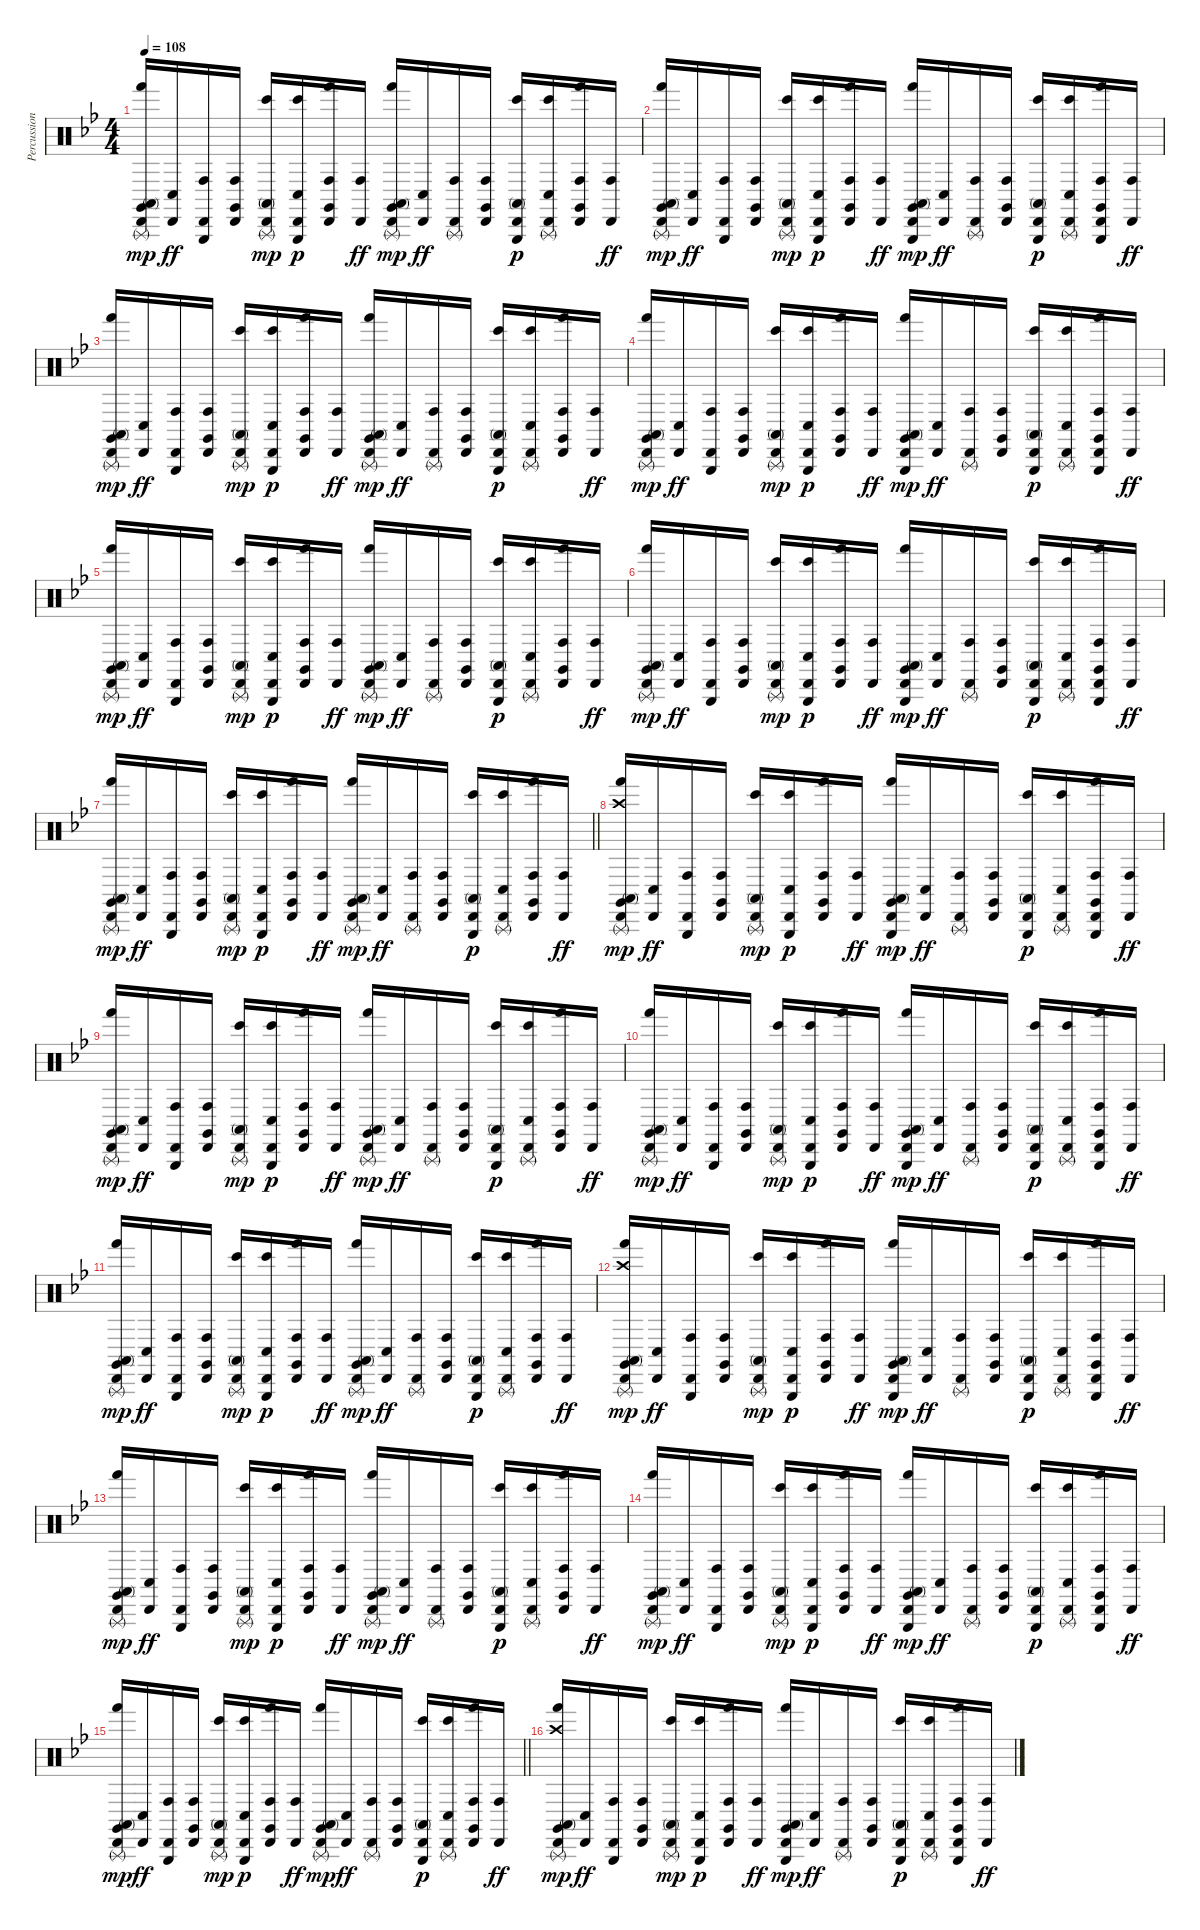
\track ("Percussion" "Percussion") {instrument percussion}
\staff {score}
\articulation defaults
\ts (4 4)
\tempo 108
\clef neutral
\ks gminor
("Cabasa (hit)" "Triangle (rnute)" "Claves (hit)" "Conga high (mute)" "Hand (hit)").16{dy mp} ("Cabasa (hit)" "Conga low (hit)").16{dy ff} ("Cabasa (hit)" "Triangle (hit)" "Conga high (hit)").16 ("Cabasa (hit)" "Claves (hit)" "Conga high (hit)").16 ("Cabasa (hit)" "Triangle (rnute)" "Conga high (mute)" "Bongo High (hit)").16{dy mp} ("Cabasa (hit)" "Triangle (hit)" "Conga low (hit)" "Bongo High (hit)").16{dy p} ("Cabasa (hit)" "Claves (hit)" "Conga high (hit)" "Hand (hit)").16 ("Cabasa (hit)" "Conga high (hit)").16{dy ff} ("Cabasa (hit)" "Triangle (rnute)" "Claves (hit)" "Conga high (mute)" "Hand (hit)").16{dy mp} ("Cabasa (hit)" "Conga low (hit)").16{dy ff} ("Cabasa (hit)" "Triangle (rnute)" "Conga high (hit)").16 ("Cabasa (hit)" "Claves (hit)" "Conga high (hit)").16 ("Cabasa (hit)" "Triangle (hit)" "Conga high (mute)" "Bongo High (hit)").16{dy p} ("Cabasa (hit)" "Triangle (rnute)" "Conga low (hit)" "Bongo High (hit)").16 ("Cabasa (hit)" "Claves (hit)" "Conga high (hit)" "Hand (hit)").16 ("Cabasa (hit)" "Conga high (hit)").16{dy ff} |
("Cabasa (hit)" "Claves (hit)" "Triangle (rnute)" "Conga high (mute)" "Hand (hit)").16{dy mp} ("Cabasa (hit)" "Conga low (hit)").16{dy ff} ("Cabasa (hit)" "Triangle (hit)" "Conga high (hit)").16 ("Cabasa (hit)" "Claves (hit)" "Conga high (hit)").16 ("Cabasa (hit)" "Triangle (rnute)" "Conga high (mute)" "Bongo High (hit)").16{dy mp} ("Cabasa (hit)" "Triangle (hit)" "Conga low (hit)" "Bongo High (hit)").16{dy p} ("Cabasa (hit)" "Claves (hit)" "Conga high (hit)" "Hand (hit)").16 ("Cabasa (hit)" "Conga high (hit)").16{dy ff} ("Cabasa (hit)" "Claves (hit)" "Triangle (hit)" "Conga high (mute)" "Hand (hit)").16{dy mp} ("Cabasa (hit)" "Conga low (hit)").16{dy ff} ("Cabasa (hit)" "Triangle (rnute)" "Conga high (hit)").16 ("Cabasa (hit)" "Claves (hit)" "Conga high (hit)").16 ("Cabasa (hit)" "Triangle (hit)" "Conga high (mute)" "Bongo High (hit)").16{dy p} ("Cabasa (hit)" "Triangle (rnute)" "Conga low (hit)" "Bongo High (hit)").16 ("Cabasa (hit)" "Claves (hit)" "Triangle (hit)" "Conga high (hit)" "Hand (hit)").16 ("Cabasa (hit)" "Conga high (hit)").16{dy ff} |
("Cabasa (hit)" "Triangle (rnute)" "Claves (hit)" "Conga high (mute)" "Hand (hit)").16{dy mp} ("Cabasa (hit)" "Conga low (hit)").16{dy ff} ("Cabasa (hit)" "Triangle (hit)" "Conga high (hit)").16 ("Cabasa (hit)" "Claves (hit)" "Conga high (hit)").16 ("Cabasa (hit)" "Triangle (rnute)" "Conga high (mute)" "Bongo High (hit)").16{dy mp} ("Cabasa (hit)" "Triangle (hit)" "Conga low (hit)" "Bongo High (hit)").16{dy p} ("Cabasa (hit)" "Claves (hit)" "Conga high (hit)" "Hand (hit)").16 ("Cabasa (hit)" "Conga high (hit)").16{dy ff} ("Cabasa (hit)" "Triangle (rnute)" "Claves (hit)" "Conga high (mute)" "Hand (hit)").16{dy mp} ("Cabasa (hit)" "Conga low (hit)").16{dy ff} ("Cabasa (hit)" "Triangle (rnute)" "Conga high (hit)").16 ("Cabasa (hit)" "Claves (hit)" "Conga high (hit)").16 ("Cabasa (hit)" "Triangle (hit)" "Conga high (mute)" "Bongo High (hit)").16{dy p} ("Cabasa (hit)" "Triangle (rnute)" "Conga low (hit)" "Bongo High (hit)").16 ("Cabasa (hit)" "Claves (hit)" "Conga high (hit)" "Hand (hit)").16 ("Cabasa (hit)" "Conga high (hit)").16{dy ff} |
("Cabasa (hit)" "Claves (hit)" "Triangle (rnute)" "Conga high (mute)" "Hand (hit)").16{dy mp} ("Cabasa (hit)" "Conga low (hit)").16{dy ff} ("Cabasa (hit)" "Triangle (hit)" "Conga high (hit)").16 ("Cabasa (hit)" "Claves (hit)" "Conga high (hit)").16 ("Cabasa (hit)" "Triangle (rnute)" "Conga high (mute)" "Bongo High (hit)").16{dy mp} ("Cabasa (hit)" "Triangle (hit)" "Conga low (hit)" "Bongo High (hit)").16{dy p} ("Cabasa (hit)" "Claves (hit)" "Conga high (hit)" "Hand (hit)").16 ("Cabasa (hit)" "Conga high (hit)").16{dy ff} ("Cabasa (hit)" "Claves (hit)" "Triangle (hit)" "Conga high (mute)" "Hand (hit)").16{dy mp} ("Cabasa (hit)" "Conga low (hit)").16{dy ff} ("Cabasa (hit)" "Triangle (rnute)" "Conga high (hit)").16 ("Cabasa (hit)" "Claves (hit)" "Conga high (hit)").16 ("Cabasa (hit)" "Triangle (hit)" "Conga high (mute)" "Bongo High (hit)").16{dy p} ("Cabasa (hit)" "Triangle (rnute)" "Conga low (hit)" "Bongo High (hit)").16 ("Cabasa (hit)" "Claves (hit)" "Triangle (hit)" "Conga high (hit)" "Hand (hit)").16 ("Cabasa (hit)" "Conga high (hit)").16{dy ff} |
("Cabasa (hit)" "Triangle (rnute)" "Claves (hit)" "Conga high (mute)" "Hand (hit)").16{dy mp} ("Cabasa (hit)" "Conga low (hit)").16{dy ff} ("Cabasa (hit)" "Triangle (hit)" "Conga high (hit)").16 ("Cabasa (hit)" "Claves (hit)" "Conga high (hit)").16 ("Cabasa (hit)" "Triangle (rnute)" "Conga high (mute)" "Bongo High (hit)").16{dy mp} ("Cabasa (hit)" "Triangle (hit)" "Conga low (hit)" "Bongo High (hit)").16{dy p} ("Cabasa (hit)" "Claves (hit)" "Conga high (hit)" "Hand (hit)").16 ("Cabasa (hit)" "Conga high (hit)").16{dy ff} ("Cabasa (hit)" "Triangle (rnute)" "Claves (hit)" "Conga high (mute)" "Hand (hit)").16{dy mp} ("Cabasa (hit)" "Conga low (hit)").16{dy ff} ("Cabasa (hit)" "Triangle (rnute)" "Conga high (hit)").16 ("Cabasa (hit)" "Claves (hit)" "Conga high (hit)").16 ("Cabasa (hit)" "Triangle (hit)" "Conga high (mute)" "Bongo High (hit)").16{dy p} ("Cabasa (hit)" "Triangle (rnute)" "Conga low (hit)" "Bongo High (hit)").16 ("Cabasa (hit)" "Claves (hit)" "Conga high (hit)" "Hand (hit)").16 ("Cabasa (hit)" "Conga high (hit)").16{dy ff} |
("Cabasa (hit)" "Claves (hit)" "Triangle (rnute)" "Conga high (mute)" "Hand (hit)").16{dy mp} ("Cabasa (hit)" "Conga low (hit)").16{dy ff} ("Cabasa (hit)" "Triangle (hit)" "Conga high (hit)").16 ("Cabasa (hit)" "Claves (hit)" "Conga high (hit)").16 ("Cabasa (hit)" "Triangle (rnute)" "Conga high (mute)" "Bongo High (hit)").16{dy mp} ("Cabasa (hit)" "Triangle (hit)" "Conga low (hit)" "Bongo High (hit)").16{dy p} ("Cabasa (hit)" "Claves (hit)" "Conga high (hit)" "Hand (hit)").16 ("Cabasa (hit)" "Conga high (hit)").16{dy ff} ("Cabasa (hit)" "Claves (hit)" "Triangle (hit)" "Conga high (mute)" "Hand (hit)").16{dy mp} ("Cabasa (hit)" "Conga low (hit)").16{dy ff} ("Cabasa (hit)" "Triangle (rnute)" "Conga high (hit)").16 ("Cabasa (hit)" "Claves (hit)" "Conga high (hit)").16 ("Cabasa (hit)" "Triangle (hit)" "Conga high (mute)" "Bongo High (hit)").16{dy p} ("Cabasa (hit)" "Triangle (rnute)" "Conga low (hit)" "Bongo High (hit)").16 ("Cabasa (hit)" "Claves (hit)" "Triangle (hit)" "Conga high (hit)" "Hand (hit)").16 ("Cabasa (hit)" "Conga high (hit)").16{dy ff} |
\barLineRight lightlight
("Cabasa (hit)" "Triangle (rnute)" "Claves (hit)" "Conga high (mute)" "Hand (hit)").16{dy mp} ("Cabasa (hit)" "Conga low (hit)").16{dy ff} ("Cabasa (hit)" "Triangle (hit)" "Conga high (hit)").16 ("Cabasa (hit)" "Claves (hit)" "Conga high (hit)").16 ("Cabasa (hit)" "Triangle (rnute)" "Conga high (mute)" "Bongo High (hit)").16{dy mp} ("Cabasa (hit)" "Triangle (hit)" "Conga low (hit)" "Bongo High (hit)").16{dy p} ("Cabasa (hit)" "Claves (hit)" "Conga high (hit)" "Hand (hit)").16 ("Cabasa (hit)" "Conga high (hit)").16{dy ff} ("Cabasa (hit)" "Triangle (rnute)" "Claves (hit)" "Conga high (mute)" "Hand (hit)").16{dy mp} ("Cabasa (hit)" "Conga low (hit)").16{dy ff} ("Cabasa (hit)" "Triangle (rnute)" "Conga high (hit)").16 ("Cabasa (hit)" "Claves (hit)" "Conga high (hit)").16 ("Cabasa (hit)" "Triangle (hit)" "Conga high (mute)" "Bongo High (hit)").16{dy p} ("Cabasa (hit)" "Triangle (rnute)" "Conga low (hit)" "Bongo High (hit)").16 ("Cabasa (hit)" "Claves (hit)" "Conga high (hit)" "Hand (hit)").16 ("Cabasa (hit)" "Conga high (hit)").16{dy ff} |
\section ("" "")
("Crash high (hit)" "Cabasa (hit)" "Claves (hit)" "Triangle (rnute)" "Conga high (mute)" "Hand (hit)").16{dy mp} ("Cabasa (hit)" "Conga low (hit)").16{dy ff} ("Cabasa (hit)" "Triangle (hit)" "Conga high (hit)").16 ("Cabasa (hit)" "Claves (hit)" "Conga high (hit)").16 ("Cabasa (hit)" "Triangle (rnute)" "Conga high (mute)" "Bongo High (hit)").16{dy mp} ("Cabasa (hit)" "Triangle (hit)" "Conga low (hit)" "Bongo High (hit)").16{dy p} ("Cabasa (hit)" "Claves (hit)" "Conga high (hit)" "Hand (hit)").16 ("Cabasa (hit)" "Conga high (hit)").16{dy ff} ("Cabasa (hit)" "Claves (hit)" "Triangle (hit)" "Conga high (mute)" "Hand (hit)").16{dy mp} ("Cabasa (hit)" "Conga low (hit)").16{dy ff} ("Cabasa (hit)" "Triangle (rnute)" "Conga high (hit)").16 ("Cabasa (hit)" "Claves (hit)" "Conga high (hit)").16 ("Cabasa (hit)" "Triangle (hit)" "Conga high (mute)" "Bongo High (hit)").16{dy p} ("Cabasa (hit)" "Triangle (rnute)" "Conga low (hit)" "Bongo High (hit)").16 ("Cabasa (hit)" "Claves (hit)" "Triangle (hit)" "Conga high (hit)" "Hand (hit)").16 ("Cabasa (hit)" "Conga high (hit)").16{dy ff} |
("Cabasa (hit)" "Triangle (rnute)" "Claves (hit)" "Conga high (mute)" "Hand (hit)").16{dy mp} ("Cabasa (hit)" "Conga low (hit)").16{dy ff} ("Cabasa (hit)" "Triangle (hit)" "Conga high (hit)").16 ("Cabasa (hit)" "Claves (hit)" "Conga high (hit)").16 ("Cabasa (hit)" "Triangle (rnute)" "Conga high (mute)" "Bongo High (hit)").16{dy mp} ("Cabasa (hit)" "Triangle (hit)" "Conga low (hit)" "Bongo High (hit)").16{dy p} ("Cabasa (hit)" "Claves (hit)" "Conga high (hit)" "Hand (hit)").16 ("Cabasa (hit)" "Conga high (hit)").16{dy ff} ("Cabasa (hit)" "Triangle (rnute)" "Claves (hit)" "Conga high (mute)" "Hand (hit)").16{dy mp} ("Cabasa (hit)" "Conga low (hit)").16{dy ff} ("Cabasa (hit)" "Triangle (rnute)" "Conga high (hit)").16 ("Cabasa (hit)" "Claves (hit)" "Conga high (hit)").16 ("Cabasa (hit)" "Triangle (hit)" "Conga high (mute)" "Bongo High (hit)").16{dy p} ("Cabasa (hit)" "Triangle (rnute)" "Conga low (hit)" "Bongo High (hit)").16 ("Cabasa (hit)" "Claves (hit)" "Conga high (hit)" "Hand (hit)").16 ("Cabasa (hit)" "Conga high (hit)").16{dy ff} |
("Cabasa (hit)" "Claves (hit)" "Triangle (rnute)" "Conga high (mute)" "Hand (hit)").16{dy mp} ("Cabasa (hit)" "Conga low (hit)").16{dy ff} ("Cabasa (hit)" "Triangle (hit)" "Conga high (hit)").16 ("Cabasa (hit)" "Claves (hit)" "Conga high (hit)").16 ("Cabasa (hit)" "Triangle (rnute)" "Conga high (mute)" "Bongo High (hit)").16{dy mp} ("Cabasa (hit)" "Triangle (hit)" "Conga low (hit)" "Bongo High (hit)").16{dy p} ("Cabasa (hit)" "Claves (hit)" "Conga high (hit)" "Hand (hit)").16 ("Cabasa (hit)" "Conga high (hit)").16{dy ff} ("Cabasa (hit)" "Claves (hit)" "Triangle (hit)" "Conga high (mute)" "Hand (hit)").16{dy mp} ("Cabasa (hit)" "Conga low (hit)").16{dy ff} ("Cabasa (hit)" "Triangle (rnute)" "Conga high (hit)").16 ("Cabasa (hit)" "Claves (hit)" "Conga high (hit)").16 ("Cabasa (hit)" "Triangle (hit)" "Conga high (mute)" "Bongo High (hit)").16{dy p} ("Cabasa (hit)" "Triangle (rnute)" "Conga low (hit)" "Bongo High (hit)").16 ("Cabasa (hit)" "Claves (hit)" "Triangle (hit)" "Conga high (hit)" "Hand (hit)").16 ("Cabasa (hit)" "Conga high (hit)").16{dy ff} |
("Cabasa (hit)" "Triangle (rnute)" "Claves (hit)" "Conga high (mute)" "Hand (hit)").16{dy mp} ("Cabasa (hit)" "Conga low (hit)").16{dy ff} ("Cabasa (hit)" "Triangle (hit)" "Conga high (hit)").16 ("Cabasa (hit)" "Claves (hit)" "Conga high (hit)").16 ("Cabasa (hit)" "Triangle (rnute)" "Conga high (mute)" "Bongo High (hit)").16{dy mp} ("Cabasa (hit)" "Triangle (hit)" "Conga low (hit)" "Bongo High (hit)").16{dy p} ("Cabasa (hit)" "Claves (hit)" "Conga high (hit)" "Hand (hit)").16 ("Cabasa (hit)" "Conga high (hit)").16{dy ff} ("Cabasa (hit)" "Triangle (rnute)" "Claves (hit)" "Conga high (mute)" "Hand (hit)").16{dy mp} ("Cabasa (hit)" "Conga low (hit)").16{dy ff} ("Cabasa (hit)" "Triangle (rnute)" "Conga high (hit)").16 ("Cabasa (hit)" "Claves (hit)" "Conga high (hit)").16 ("Cabasa (hit)" "Triangle (hit)" "Conga high (mute)" "Bongo High (hit)").16{dy p} ("Cabasa (hit)" "Triangle (rnute)" "Conga low (hit)" "Bongo High (hit)").16 ("Cabasa (hit)" "Claves (hit)" "Conga high (hit)" "Hand (hit)").16 ("Cabasa (hit)" "Conga high (hit)").16{dy ff} |
("Crash high (hit)" "Cabasa (hit)" "Claves (hit)" "Triangle (rnute)" "Conga high (mute)" "Hand (hit)").16{dy mp} ("Cabasa (hit)" "Conga low (hit)").16{dy ff} ("Cabasa (hit)" "Triangle (hit)" "Conga high (hit)").16 ("Cabasa (hit)" "Claves (hit)" "Conga high (hit)").16 ("Cabasa (hit)" "Triangle (rnute)" "Conga high (mute)" "Bongo High (hit)").16{dy mp} ("Cabasa (hit)" "Triangle (hit)" "Conga low (hit)" "Bongo High (hit)").16{dy p} ("Cabasa (hit)" "Claves (hit)" "Conga high (hit)" "Hand (hit)").16 ("Cabasa (hit)" "Conga high (hit)").16{dy ff} ("Cabasa (hit)" "Claves (hit)" "Triangle (hit)" "Conga high (mute)" "Hand (hit)").16{dy mp} ("Cabasa (hit)" "Conga low (hit)").16{dy ff} ("Cabasa (hit)" "Triangle (rnute)" "Conga high (hit)").16 ("Cabasa (hit)" "Claves (hit)" "Conga high (hit)").16 ("Cabasa (hit)" "Triangle (hit)" "Conga high (mute)" "Bongo High (hit)").16{dy p} ("Cabasa (hit)" "Triangle (rnute)" "Conga low (hit)" "Bongo High (hit)").16 ("Cabasa (hit)" "Claves (hit)" "Triangle (hit)" "Conga high (hit)" "Hand (hit)").16 ("Cabasa (hit)" "Conga high (hit)").16{dy ff} |
("Cabasa (hit)" "Triangle (rnute)" "Claves (hit)" "Conga high (mute)" "Hand (hit)").16{dy mp} ("Cabasa (hit)" "Conga low (hit)").16{dy ff} ("Cabasa (hit)" "Triangle (hit)" "Conga high (hit)").16 ("Cabasa (hit)" "Claves (hit)" "Conga high (hit)").16 ("Cabasa (hit)" "Triangle (rnute)" "Conga high (mute)" "Bongo High (hit)").16{dy mp} ("Cabasa (hit)" "Triangle (hit)" "Conga low (hit)" "Bongo High (hit)").16{dy p} ("Cabasa (hit)" "Claves (hit)" "Conga high (hit)" "Hand (hit)").16 ("Cabasa (hit)" "Conga high (hit)").16{dy ff} ("Cabasa (hit)" "Triangle (rnute)" "Claves (hit)" "Conga high (mute)" "Hand (hit)").16{dy mp} ("Cabasa (hit)" "Conga low (hit)").16{dy ff} ("Cabasa (hit)" "Triangle (rnute)" "Conga high (hit)").16 ("Cabasa (hit)" "Claves (hit)" "Conga high (hit)").16 ("Cabasa (hit)" "Triangle (hit)" "Conga high (mute)" "Bongo High (hit)").16{dy p} ("Cabasa (hit)" "Triangle (rnute)" "Conga low (hit)" "Bongo High (hit)").16 ("Cabasa (hit)" "Claves (hit)" "Conga high (hit)" "Hand (hit)").16 ("Cabasa (hit)" "Conga high (hit)").16{dy ff} |
("Cabasa (hit)" "Claves (hit)" "Triangle (rnute)" "Conga high (mute)" "Hand (hit)").16{dy mp} ("Cabasa (hit)" "Conga low (hit)").16{dy ff} ("Cabasa (hit)" "Triangle (hit)" "Conga high (hit)").16 ("Cabasa (hit)" "Claves (hit)" "Conga high (hit)").16 ("Cabasa (hit)" "Triangle (rnute)" "Conga high (mute)" "Bongo High (hit)").16{dy mp} ("Cabasa (hit)" "Triangle (hit)" "Conga low (hit)" "Bongo High (hit)").16{dy p} ("Cabasa (hit)" "Claves (hit)" "Conga high (hit)" "Hand (hit)").16 ("Cabasa (hit)" "Conga high (hit)").16{dy ff} ("Cabasa (hit)" "Claves (hit)" "Triangle (hit)" "Conga high (mute)" "Hand (hit)").16{dy mp} ("Cabasa (hit)" "Conga low (hit)").16{dy ff} ("Cabasa (hit)" "Triangle (rnute)" "Conga high (hit)").16 ("Cabasa (hit)" "Claves (hit)" "Conga high (hit)").16 ("Cabasa (hit)" "Triangle (hit)" "Conga high (mute)" "Bongo High (hit)").16{dy p} ("Cabasa (hit)" "Triangle (rnute)" "Conga low (hit)" "Bongo High (hit)").16 ("Cabasa (hit)" "Claves (hit)" "Triangle (hit)" "Conga high (hit)" "Hand (hit)").16 ("Cabasa (hit)" "Conga high (hit)").16{dy ff} |
\barLineRight lightlight
("Cabasa (hit)" "Triangle (rnute)" "Claves (hit)" "Conga high (mute)" "Hand (hit)").16{dy mp} ("Cabasa (hit)" "Conga low (hit)").16{dy ff} ("Cabasa (hit)" "Triangle (hit)" "Conga high (hit)").16 ("Cabasa (hit)" "Claves (hit)" "Conga high (hit)").16 ("Cabasa (hit)" "Triangle (rnute)" "Conga high (mute)" "Bongo High (hit)").16{dy mp} ("Cabasa (hit)" "Triangle (hit)" "Conga low (hit)" "Bongo High (hit)").16{dy p} ("Cabasa (hit)" "Claves (hit)" "Conga high (hit)" "Hand (hit)").16 ("Cabasa (hit)" "Conga high (hit)").16{dy ff} ("Cabasa (hit)" "Triangle (rnute)" "Claves (hit)" "Conga high (mute)" "Hand (hit)").16{dy mp} ("Cabasa (hit)" "Conga low (hit)").16{dy ff} ("Cabasa (hit)" "Triangle (rnute)" "Conga high (hit)").16 ("Cabasa (hit)" "Claves (hit)" "Conga high (hit)").16 ("Cabasa (hit)" "Triangle (hit)" "Conga high (mute)" "Bongo High (hit)").16{dy p} ("Cabasa (hit)" "Triangle (rnute)" "Conga low (hit)" "Bongo High (hit)").16 ("Cabasa (hit)" "Claves (hit)" "Conga high (hit)" "Hand (hit)").16 ("Cabasa (hit)" "Conga high (hit)").16{dy ff} |
\section ("" "")
("Crash high (hit)" "Cabasa (hit)" "Claves (hit)" "Triangle (rnute)" "Conga high (mute)" "Hand (hit)").16{dy mp} ("Cabasa (hit)" "Conga low (hit)").16{dy ff} ("Cabasa (hit)" "Triangle (hit)" "Conga high (hit)").16 ("Cabasa (hit)" "Claves (hit)" "Conga high (hit)").16 ("Cabasa (hit)" "Triangle (rnute)" "Conga high (mute)" "Bongo High (hit)").16{dy mp} ("Cabasa (hit)" "Triangle (hit)" "Conga low (hit)" "Bongo High (hit)").16{dy p} ("Cabasa (hit)" "Claves (hit)" "Conga high (hit)" "Hand (hit)").16 ("Cabasa (hit)" "Conga high (hit)").16{dy ff} ("Cabasa (hit)" "Claves (hit)" "Triangle (hit)" "Conga high (mute)" "Hand (hit)").16{dy mp} ("Cabasa (hit)" "Conga low (hit)").16{dy ff} ("Cabasa (hit)" "Triangle (rnute)" "Conga high (hit)").16 ("Cabasa (hit)" "Claves (hit)" "Conga high (hit)").16 ("Cabasa (hit)" "Triangle (hit)" "Conga high (mute)" "Bongo High (hit)").16{dy p} ("Cabasa (hit)" "Triangle (rnute)" "Conga low (hit)" "Bongo High (hit)").16 ("Cabasa (hit)" "Claves (hit)" "Triangle (hit)" "Conga high (hit)" "Hand (hit)").16 ("Cabasa (hit)" "Conga high (hit)").16{dy ff}
